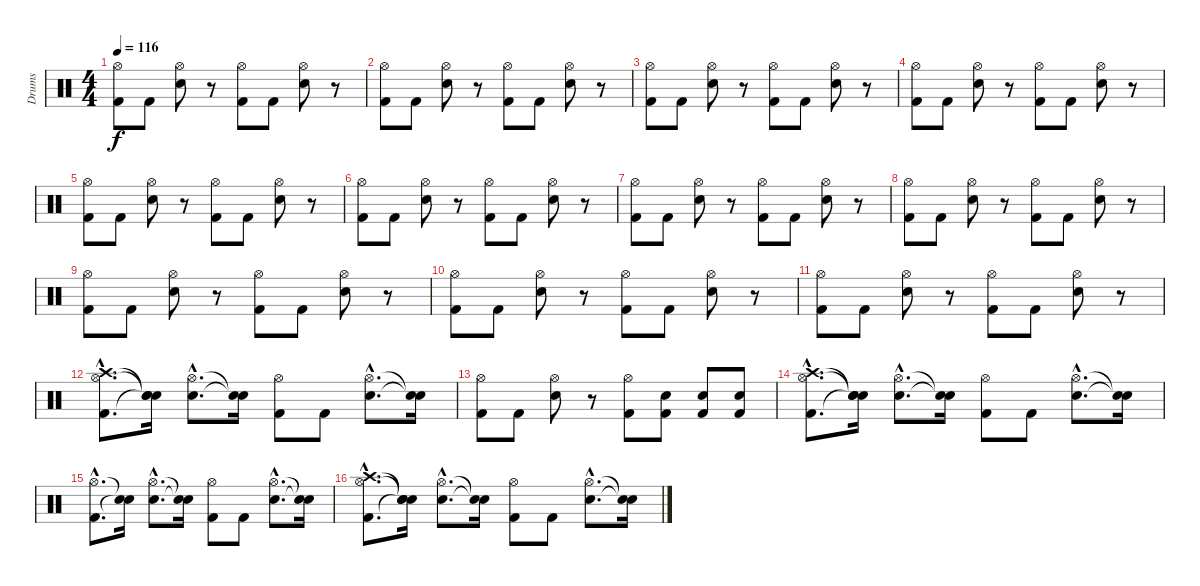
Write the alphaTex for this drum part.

\track ("Drums" "Drums") {instrument percussion}
\staff {score}
\articulation defaults
\ts (4 4)
\tempo 116
\clef neutral
\ks c
("Kick (hit) 2" "Hi-Hat (open)").8{dy f} "Kick (hit) 2".8 ("Snare (hit) 2" "Hi-Hat (open)").8 r.8 ("Kick (hit) 2" "Hi-Hat (open)").8 "Kick (hit) 2".8 ("Snare (hit) 2" "Hi-Hat (open)").8 r.8 |
("Kick (hit) 2" "Hi-Hat (open)").8 "Kick (hit) 2".8 ("Snare (hit) 2" "Hi-Hat (open)").8 r.8 ("Kick (hit) 2" "Hi-Hat (open)").8 "Kick (hit) 2".8 ("Snare (hit) 2" "Hi-Hat (open)").8 r.8 |
("Kick (hit) 2" "Hi-Hat (open)").8 "Kick (hit) 2".8 ("Snare (hit) 2" "Hi-Hat (open)").8 r.8 ("Kick (hit) 2" "Hi-Hat (open)").8 "Kick (hit) 2".8 ("Snare (hit) 2" "Hi-Hat (open)").8 r.8 |
("Kick (hit) 2" "Hi-Hat (open)").8 "Kick (hit) 2".8 ("Snare (hit) 2" "Hi-Hat (open)").8 r.8 ("Kick (hit) 2" "Hi-Hat (open)").8 "Kick (hit) 2".8 ("Snare (hit) 2" "Hi-Hat (open)").8 r.8 |
("Kick (hit) 2" "Hi-Hat (open)").8 "Kick (hit) 2".8 ("Snare (hit) 2" "Hi-Hat (open)").8 r.8 ("Kick (hit) 2" "Hi-Hat (open)").8 "Kick (hit) 2".8 ("Snare (hit) 2" "Hi-Hat (open)").8 r.8 |
("Kick (hit) 2" "Hi-Hat (open)").8 "Kick (hit) 2".8 ("Snare (hit) 2" "Hi-Hat (open)").8 r.8 ("Kick (hit) 2" "Hi-Hat (open)").8 "Kick (hit) 2".8 ("Snare (hit) 2" "Hi-Hat (open)").8 r.8 |
("Kick (hit) 2" "Hi-Hat (open)").8 "Kick (hit) 2".8 ("Snare (hit) 2" "Hi-Hat (open)").8 r.8 ("Kick (hit) 2" "Hi-Hat (open)").8 "Kick (hit) 2".8 ("Snare (hit) 2" "Hi-Hat (open)").8 r.8 |
("Kick (hit) 2" "Hi-Hat (open)").8 "Kick (hit) 2".8 ("Snare (hit) 2" "Hi-Hat (open)").8 r.8 ("Kick (hit) 2" "Hi-Hat (open)").8 "Kick (hit) 2".8 ("Snare (hit) 2" "Hi-Hat (open)").8 r.8 |
("Kick (hit) 2" "Hi-Hat (open)").8 "Kick (hit) 2".8 ("Snare (hit) 2" "Hi-Hat (open)").8 r.8 ("Kick (hit) 2" "Hi-Hat (open)").8 "Kick (hit) 2".8 ("Snare (hit) 2" "Hi-Hat (open)").8 r.8 |
("Kick (hit) 2" "Hi-Hat (open)").8 "Kick (hit) 2".8 ("Snare (hit) 2" "Hi-Hat (open)").8 r.8 ("Kick (hit) 2" "Hi-Hat (open)").8 "Kick (hit) 2".8 ("Snare (hit) 2" "Hi-Hat (open)").8 r.8 |
("Kick (hit) 2" "Hi-Hat (open)").8 "Kick (hit) 2".8 ("Snare (hit) 2" "Hi-Hat (open)").8 r.8 ("Kick (hit) 2" "Hi-Hat (open)").8 "Kick (hit) 2".8 ("Snare (hit) 2" "Hi-Hat (open)").8 r.8 |
("Kick (hit) 2"{hac} "Hi-Hat (open)"{hac} "Crash high (hit)"{hac}).8{d} ("Snare (hit)"{t} "Snare (hit)"{t} "Snare (hit)"{t}).16 ("Snare (hit) 2"{hac} "Hi-Hat (open)"{hac}).8{d} ("Snare (hit)"{t} "Snare (hit)"{t}).16 ("Kick (hit) 2" "Hi-Hat (open)").8 "Kick (hit) 2".8 ("Snare (hit) 2"{hac} "Hi-Hat (open)"{hac}).8{d} ("Snare (hit)"{t} "Snare (hit)"{t}).16 |
("Kick (hit) 2" "Hi-Hat (open)").8 "Kick (hit) 2".8 ("Snare (hit) 2" "Hi-Hat (open)").8 r.8 ("Kick (hit) 2" "Hi-Hat (open)").8 ("Kick (hit) 2" "Snare (hit) 2").8 ("Kick (hit) 2" "Snare (hit) 2").8 ("Kick (hit) 2" "Snare (hit) 2").8 |
("Kick (hit) 2"{hac} "Hi-Hat (open)"{hac} "Crash high (hit)"{hac}).8{d} ("Snare (hit)"{t} "Snare (hit)"{t} "Snare (hit)"{t}).16 ("Snare (hit) 2"{hac} "Hi-Hat (open)"{hac}).8{d} ("Snare (hit)"{t} "Snare (hit)"{t}).16 ("Kick (hit) 2" "Hi-Hat (open)").8 "Kick (hit) 2".8 ("Snare (hit) 2"{hac} "Hi-Hat (open)"{hac}).8{d} ("Snare (hit)"{t} "Snare (hit)"{t}).16 |
("Kick (hit) 2"{hac} "Hi-Hat (open)"{hac}).8{d} ("Snare (hit)"{t} "Snare (hit)"{t}).16 ("Snare (hit) 2"{hac} "Hi-Hat (open)"{hac}).8{d} ("Snare (hit)"{t} "Snare (hit)"{t}).16 ("Kick (hit) 2" "Hi-Hat (open)").8 "Kick (hit) 2".8 ("Snare (hit) 2"{hac} "Hi-Hat (open)"{hac}).8{d} ("Snare (hit)"{t} "Snare (hit)"{t}).16 |
("Kick (hit) 2"{hac} "Hi-Hat (open)"{hac} "Crash high (hit)"{hac}).8{d} ("Snare (hit)"{t} "Snare (hit)"{t} "Snare (hit)"{t}).16 ("Snare (hit) 2"{hac} "Hi-Hat (open)"{hac}).8{d} ("Snare (hit)"{t} "Snare (hit)"{t}).16 ("Kick (hit) 2" "Hi-Hat (open)").8 "Kick (hit) 2".8 ("Snare (hit) 2"{hac} "Hi-Hat (open)"{hac}).8{d} ("Snare (hit)"{t} "Snare (hit)"{t}).16
